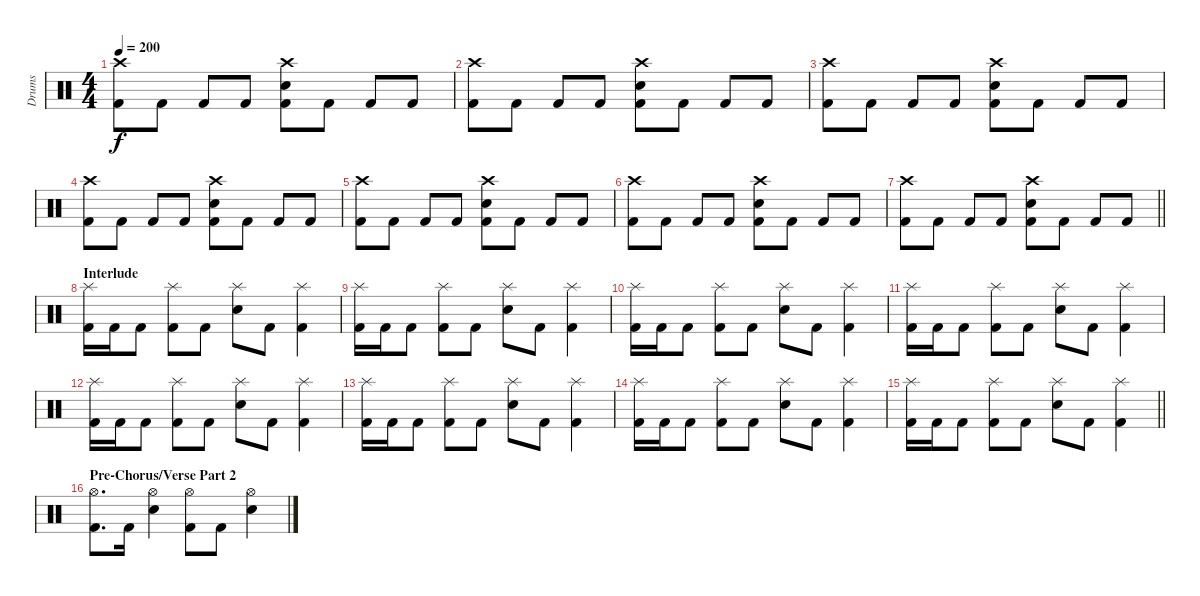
\track ("Drums" "Drums") {instrument percussion}
\staff {score}
\articulation defaults
\ts (4 4)
\tempo 200
\clef neutral
\ks c
("Crash high (hit)" "Kick (hit) 2").8{dy f} "Kick (hit) 2".8 "Kick (hit) 2".8 "Kick (hit) 2".8 ("Crash high (hit)" "Electric Snare (hit)" "Kick (hit) 2").8 "Kick (hit) 2".8 "Kick (hit) 2".8 "Kick (hit) 2".8 |
("Crash high (hit)" "Kick (hit) 2").8 "Kick (hit) 2".8 "Kick (hit) 2".8 "Kick (hit) 2".8 ("Crash high (hit)" "Electric Snare (hit)" "Kick (hit) 2").8 "Kick (hit) 2".8 "Kick (hit) 2".8 "Kick (hit) 2".8 |
("Crash high (hit)" "Kick (hit) 2").8 "Kick (hit) 2".8 "Kick (hit) 2".8 "Kick (hit) 2".8 ("Crash high (hit)" "Electric Snare (hit)" "Kick (hit) 2").8 "Kick (hit) 2".8 "Kick (hit) 2".8 "Kick (hit) 2".8 |
("Crash high (hit)" "Kick (hit) 2").8 "Kick (hit) 2".8 "Kick (hit) 2".8 "Kick (hit) 2".8 ("Crash high (hit)" "Electric Snare (hit)" "Kick (hit) 2").8 "Kick (hit) 2".8 "Kick (hit) 2".8 "Kick (hit) 2".8 |
("Crash high (hit)" "Kick (hit) 2").8 "Kick (hit) 2".8 "Kick (hit) 2".8 "Kick (hit) 2".8 ("Crash high (hit)" "Electric Snare (hit)" "Kick (hit) 2").8 "Kick (hit) 2".8 "Kick (hit) 2".8 "Kick (hit) 2".8 |
("Crash high (hit)" "Kick (hit) 2").8 "Kick (hit) 2".8 "Kick (hit) 2".8 "Kick (hit) 2".8 ("Crash high (hit)" "Electric Snare (hit)" "Kick (hit) 2").8 "Kick (hit) 2".8 "Kick (hit) 2".8 "Kick (hit) 2".8 |
\barLineRight lightlight
("Crash high (hit)" "Kick (hit) 2").8 "Kick (hit) 2".8 "Kick (hit) 2".8 "Kick (hit) 2".8 ("Crash high (hit)" "Electric Snare (hit)" "Kick (hit) 2").8 "Kick (hit) 2".8 "Kick (hit) 2".8 "Kick (hit) 2".8 |
\section ("" "Interlude")
("Splash (hit)" "Kick (hit) 2").16 "Kick (hit) 2".16 "Kick (hit) 2".8 ("Splash (hit)" "Kick (hit) 2").8 "Kick (hit) 2".8 ("Splash (hit)" "Electric Snare (hit)").8 "Kick (hit) 2".8 ("Splash (hit)" "Kick (hit) 2").4 |
("Splash (hit)" "Kick (hit) 2").16 "Kick (hit) 2".16 "Kick (hit) 2".8 ("Splash (hit)" "Kick (hit) 2").8 "Kick (hit) 2".8 ("Splash (hit)" "Electric Snare (hit)").8 "Kick (hit) 2".8 ("Splash (hit)" "Kick (hit) 2").4 |
("Splash (hit)" "Kick (hit) 2").16 "Kick (hit) 2".16 "Kick (hit) 2".8 ("Splash (hit)" "Kick (hit) 2").8 "Kick (hit) 2".8 ("Splash (hit)" "Electric Snare (hit)").8 "Kick (hit) 2".8 ("Splash (hit)" "Kick (hit) 2").4 |
("Splash (hit)" "Kick (hit) 2").16 "Kick (hit) 2".16 "Kick (hit) 2".8 ("Splash (hit)" "Kick (hit) 2").8 "Kick (hit) 2".8 ("Splash (hit)" "Electric Snare (hit)").8 "Kick (hit) 2".8 ("Splash (hit)" "Kick (hit) 2").4 |
("Splash (hit)" "Kick (hit) 2").16 "Kick (hit) 2".16 "Kick (hit) 2".8 ("Splash (hit)" "Kick (hit) 2").8 "Kick (hit) 2".8 ("Splash (hit)" "Electric Snare (hit)").8 "Kick (hit) 2".8 ("Splash (hit)" "Kick (hit) 2").4 |
("Splash (hit)" "Kick (hit) 2").16 "Kick (hit) 2".16 "Kick (hit) 2".8 ("Splash (hit)" "Kick (hit) 2").8 "Kick (hit) 2".8 ("Splash (hit)" "Electric Snare (hit)").8 "Kick (hit) 2".8 ("Splash (hit)" "Kick (hit) 2").4 |
("Splash (hit)" "Kick (hit) 2").16 "Kick (hit) 2".16 "Kick (hit) 2".8 ("Splash (hit)" "Kick (hit) 2").8 "Kick (hit) 2".8 ("Splash (hit)" "Electric Snare (hit)").8 "Kick (hit) 2".8 ("Splash (hit)" "Kick (hit) 2").4 |
\barLineRight lightlight
("Splash (hit)" "Kick (hit) 2").16 "Kick (hit) 2".16 "Kick (hit) 2".8 ("Splash (hit)" "Kick (hit) 2").8 "Kick (hit) 2".8 ("Splash (hit)" "Electric Snare (hit)").8 "Kick (hit) 2".8 ("Splash (hit)" "Kick (hit) 2").4 |
\section ("" "Pre-Chorus/Verse Part 2")
("Hi-Hat (open)" "Kick (hit) 2").8{d} "Kick (hit) 2".16 ("Hi-Hat (open)" "Electric Snare (hit)").4 ("Hi-Hat (open)" "Kick (hit) 2").8 "Kick (hit) 2".8 ("Hi-Hat (open)" "Electric Snare (hit)").4
